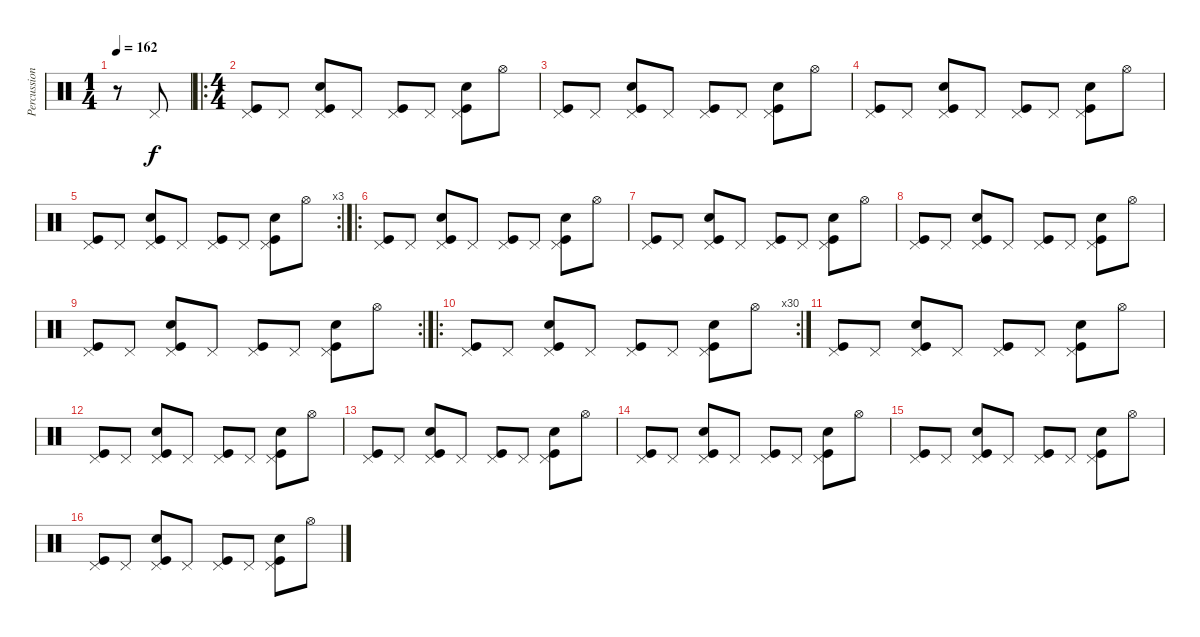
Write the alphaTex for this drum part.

\track ("Percussion" "Percussion") {instrument percussion}
\staff {score}
\articulation defaults
\ts (1 4)
\tempo 162
\clef neutral
\ks c
r.8{dy f} "Pedal Hi-Hat (hit)".8 |
\ro
\ts (4 4)
("Pedal Hi-Hat (hit)" "Kick (hit)").8 "Pedal Hi-Hat (hit)".8 ("Pedal Hi-Hat (hit)" "Snare (hit) 2" "Kick (hit)").8 "Pedal Hi-Hat (hit)".8 ("Pedal Hi-Hat (hit)" "Kick (hit)").8 "Pedal Hi-Hat (hit)".8 ("Pedal Hi-Hat (hit)" "Snare (hit) 2" "Kick (hit)").8 "Hi-Hat (open)".8 |
("Pedal Hi-Hat (hit)" "Kick (hit)").8 "Pedal Hi-Hat (hit)".8 ("Pedal Hi-Hat (hit)" "Snare (hit) 2" "Kick (hit)").8 "Pedal Hi-Hat (hit)".8 ("Pedal Hi-Hat (hit)" "Kick (hit)").8 "Pedal Hi-Hat (hit)".8 ("Pedal Hi-Hat (hit)" "Snare (hit) 2" "Kick (hit)").8 "Hi-Hat (open)".8 |
("Pedal Hi-Hat (hit)" "Kick (hit)").8 "Pedal Hi-Hat (hit)".8 ("Pedal Hi-Hat (hit)" "Snare (hit) 2" "Kick (hit)").8 "Pedal Hi-Hat (hit)".8 ("Pedal Hi-Hat (hit)" "Kick (hit)").8 "Pedal Hi-Hat (hit)".8 ("Pedal Hi-Hat (hit)" "Snare (hit) 2" "Kick (hit)").8 "Hi-Hat (open)".8 |
\rc 3
("Pedal Hi-Hat (hit)" "Kick (hit)").8 "Pedal Hi-Hat (hit)".8 ("Pedal Hi-Hat (hit)" "Snare (hit) 2" "Kick (hit)").8 "Pedal Hi-Hat (hit)".8 ("Pedal Hi-Hat (hit)" "Kick (hit)").8 "Pedal Hi-Hat (hit)".8 ("Pedal Hi-Hat (hit)" "Snare (hit) 2" "Kick (hit)").8 "Hi-Hat (open)".8 |
\ro
("Pedal Hi-Hat (hit)" "Kick (hit)").8 "Pedal Hi-Hat (hit)".8 ("Pedal Hi-Hat (hit)" "Snare (hit) 2" "Kick (hit)").8 "Pedal Hi-Hat (hit)".8 ("Pedal Hi-Hat (hit)" "Kick (hit)").8 "Pedal Hi-Hat (hit)".8 ("Pedal Hi-Hat (hit)" "Snare (hit) 2" "Kick (hit)").8 "Hi-Hat (open)".8 |
("Pedal Hi-Hat (hit)" "Kick (hit)").8 "Pedal Hi-Hat (hit)".8 ("Pedal Hi-Hat (hit)" "Snare (hit) 2" "Kick (hit)").8 "Pedal Hi-Hat (hit)".8 ("Pedal Hi-Hat (hit)" "Kick (hit)").8 "Pedal Hi-Hat (hit)".8 ("Pedal Hi-Hat (hit)" "Snare (hit) 2" "Kick (hit)").8 "Hi-Hat (open)".8 |
("Pedal Hi-Hat (hit)" "Kick (hit)").8 "Pedal Hi-Hat (hit)".8 ("Pedal Hi-Hat (hit)" "Snare (hit) 2" "Kick (hit)").8 "Pedal Hi-Hat (hit)".8 ("Pedal Hi-Hat (hit)" "Kick (hit)").8 "Pedal Hi-Hat (hit)".8 ("Pedal Hi-Hat (hit)" "Snare (hit) 2" "Kick (hit)").8 "Hi-Hat (open)".8 |
\rc 2
("Pedal Hi-Hat (hit)" "Kick (hit)").8 "Pedal Hi-Hat (hit)".8 ("Pedal Hi-Hat (hit)" "Snare (hit) 2" "Kick (hit)").8 "Pedal Hi-Hat (hit)".8 ("Pedal Hi-Hat (hit)" "Kick (hit)").8 "Pedal Hi-Hat (hit)".8 ("Pedal Hi-Hat (hit)" "Snare (hit) 2" "Kick (hit)").8 "Hi-Hat (open)".8 |
\ro
\rc 30
("Pedal Hi-Hat (hit)" "Kick (hit)").8 "Pedal Hi-Hat (hit)".8 ("Pedal Hi-Hat (hit)" "Snare (hit) 2" "Kick (hit)").8 "Pedal Hi-Hat (hit)".8 ("Pedal Hi-Hat (hit)" "Kick (hit)").8 "Pedal Hi-Hat (hit)".8 ("Pedal Hi-Hat (hit)" "Snare (hit) 2" "Kick (hit)").8 "Hi-Hat (open)".8 |
("Pedal Hi-Hat (hit)" "Kick (hit)").8 "Pedal Hi-Hat (hit)".8 ("Pedal Hi-Hat (hit)" "Snare (hit) 2" "Kick (hit)").8 "Pedal Hi-Hat (hit)".8 ("Pedal Hi-Hat (hit)" "Kick (hit)").8 "Pedal Hi-Hat (hit)".8 ("Pedal Hi-Hat (hit)" "Snare (hit) 2" "Kick (hit)").8 "Hi-Hat (open)".8 |
("Pedal Hi-Hat (hit)" "Kick (hit)").8 "Pedal Hi-Hat (hit)".8 ("Pedal Hi-Hat (hit)" "Snare (hit) 2" "Kick (hit)").8 "Pedal Hi-Hat (hit)".8 ("Pedal Hi-Hat (hit)" "Kick (hit)").8 "Pedal Hi-Hat (hit)".8 ("Pedal Hi-Hat (hit)" "Snare (hit) 2" "Kick (hit)").8 "Hi-Hat (open)".8 |
("Pedal Hi-Hat (hit)" "Kick (hit)").8 "Pedal Hi-Hat (hit)".8 ("Pedal Hi-Hat (hit)" "Snare (hit) 2" "Kick (hit)").8 "Pedal Hi-Hat (hit)".8 ("Pedal Hi-Hat (hit)" "Kick (hit)").8 "Pedal Hi-Hat (hit)".8 ("Pedal Hi-Hat (hit)" "Snare (hit) 2" "Kick (hit)").8 "Hi-Hat (open)".8 |
("Pedal Hi-Hat (hit)" "Kick (hit)").8 "Pedal Hi-Hat (hit)".8 ("Pedal Hi-Hat (hit)" "Snare (hit) 2" "Kick (hit)").8 "Pedal Hi-Hat (hit)".8 ("Pedal Hi-Hat (hit)" "Kick (hit)").8 "Pedal Hi-Hat (hit)".8 ("Pedal Hi-Hat (hit)" "Snare (hit) 2" "Kick (hit)").8 "Hi-Hat (open)".8 |
("Pedal Hi-Hat (hit)" "Kick (hit)").8 "Pedal Hi-Hat (hit)".8 ("Pedal Hi-Hat (hit)" "Snare (hit) 2" "Kick (hit)").8 "Pedal Hi-Hat (hit)".8 ("Pedal Hi-Hat (hit)" "Kick (hit)").8 "Pedal Hi-Hat (hit)".8 ("Pedal Hi-Hat (hit)" "Snare (hit) 2" "Kick (hit)").8 "Hi-Hat (open)".8 |
("Pedal Hi-Hat (hit)" "Kick (hit)").8 "Pedal Hi-Hat (hit)".8 ("Pedal Hi-Hat (hit)" "Snare (hit) 2" "Kick (hit)").8 "Pedal Hi-Hat (hit)".8 ("Pedal Hi-Hat (hit)" "Kick (hit)").8 "Pedal Hi-Hat (hit)".8 ("Pedal Hi-Hat (hit)" "Snare (hit) 2" "Kick (hit)").8 "Hi-Hat (open)".8
